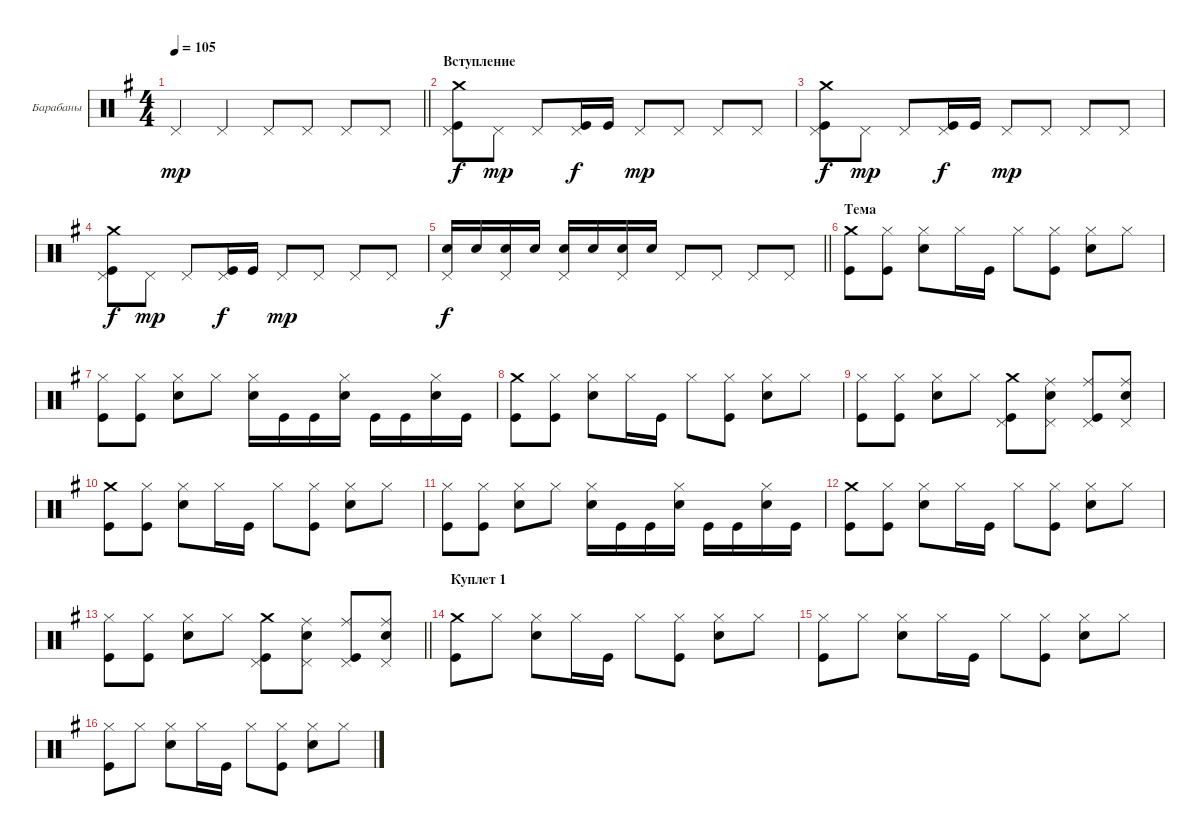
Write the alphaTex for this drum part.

\bracketExtendMode groupsimilarinstruments
\firstSystemTrackNameMode fullname
\otherSystemsTrackNameMode fullname
\firstSystemTrackNameOrientation horizontal
\otherSystemsTrackNameOrientation horizontal
\chordDiagramsInScore
\track ("Барабаны" "Drums") {instrument percussion}
\staff {score}
\articulation defaults
\ts (4 4)
\beaming (8 2 2 2 2)
\tempo 105
\clef neutral
\barLineRight lightlight
\ks eminor "Pedal Hi-Hat (hit)".4{dy mp} "Pedal Hi-Hat (hit)".4 "Pedal Hi-Hat (hit)".8 "Pedal Hi-Hat (hit)".8 "Pedal Hi-Hat (hit)".8 "Pedal Hi-Hat (hit)".8
|
\section ("" "Вступление")
("Pedal Hi-Hat (hit)" "Kick (hit)" "Crash medium (hit)").8{dy f} "Pedal Hi-Hat (hit)".8{dy mp} "Pedal Hi-Hat (hit)".8 ("Kick (hit)" "Pedal Hi-Hat (hit)").16{dy f} "Kick (hit)".16 "Pedal Hi-Hat (hit)".8{dy mp} "Pedal Hi-Hat (hit)".8 "Pedal Hi-Hat (hit)".8 "Pedal Hi-Hat (hit)".8 |
("Kick (hit)" "Crash medium (hit)" "Pedal Hi-Hat (hit)").8{dy f} "Pedal Hi-Hat (hit)".8{dy mp} "Pedal Hi-Hat (hit)".8 ("Kick (hit)" "Pedal Hi-Hat (hit)").16{dy f} "Kick (hit)".16 "Pedal Hi-Hat (hit)".8{dy mp} "Pedal Hi-Hat (hit)".8 "Pedal Hi-Hat (hit)".8 "Pedal Hi-Hat (hit)".8 |
("Pedal Hi-Hat (hit)" "Kick (hit)" "Crash medium (hit)").8{dy f} "Pedal Hi-Hat (hit)".8{dy mp} "Pedal Hi-Hat (hit)".8 ("Kick (hit)" "Pedal Hi-Hat (hit)").16{dy f} "Kick (hit)".16 "Pedal Hi-Hat (hit)".8{dy mp} "Pedal Hi-Hat (hit)".8 "Pedal Hi-Hat (hit)".8 "Pedal Hi-Hat (hit)".8 |
\barLineRight lightlight
("Snare (hit) 2" "Pedal Hi-Hat (hit)").16{dy f} "Snare (hit) 2".16 ("Snare (hit) 2" "Pedal Hi-Hat (hit)").16 "Snare (hit) 2".16 ("Snare (hit) 2" "Pedal Hi-Hat (hit)").16 "Snare (hit) 2".16 ("Pedal Hi-Hat (hit)" "Snare (hit) 2").16 "Snare (hit) 2".16 "Pedal Hi-Hat (hit)".8 "Pedal Hi-Hat (hit)".8 "Pedal Hi-Hat (hit)".8 "Pedal Hi-Hat (hit)".8 |
\section ("" "Тема")
("Kick (hit)" "Crash medium (hit)").8 ("Kick (hit)" "Hi-Hat (closed)").8 ("Hi-Hat (closed)" "Snare (hit) 2").8 "Hi-Hat (closed)".16 "Kick (hit)".16 "Hi-Hat (closed)".8 ("Hi-Hat (closed)" "Kick (hit)").8 ("Hi-Hat (closed)" "Snare (hit) 2").8 "Hi-Hat (closed)".8 |
("Kick (hit)" "Hi-Hat (closed)").8 ("Kick (hit)" "Hi-Hat (closed)").8 ("Hi-Hat (closed)" "Snare (hit) 2").8 "Hi-Hat (closed)".8 ("Snare (hit) 2" "Hi-Hat (closed)").16 "Kick (hit)".16 "Kick (hit)".16 ("Snare (hit) 2" "Hi-Hat (closed)").16 "Kick (hit)".16 "Kick (hit)".16 ("Snare (hit) 2" "Hi-Hat (closed)").16 "Kick (hit)".16 |
("Kick (hit)" "Crash medium (hit)").8 ("Kick (hit)" "Hi-Hat (closed)").8 ("Hi-Hat (closed)" "Snare (hit) 2").8 "Hi-Hat (closed)".16 "Kick (hit)".16 "Hi-Hat (closed)".8 ("Hi-Hat (closed)" "Kick (hit)").8 ("Hi-Hat (closed)" "Snare (hit) 2").8 "Hi-Hat (closed)".8 |
("Kick (hit)" "Hi-Hat (closed)").8 ("Kick (hit)" "Hi-Hat (closed)").8 ("Hi-Hat (closed)" "Snare (hit) 2").8 "Hi-Hat (closed)".8 ("Kick (hit)" "Crash medium (hit)" "Pedal Hi-Hat (hit)").8 ("Snare (hit) 2" "Ride (middle)" "Pedal Hi-Hat (hit)").8 ("Kick (hit)" "Ride (middle)" "Pedal Hi-Hat (hit)").8 ("Snare (hit) 2" "Ride (middle)" "Pedal Hi-Hat (hit)").8 |
("Kick (hit)" "Crash medium (hit)").8 ("Kick (hit)" "Hi-Hat (closed)").8 ("Hi-Hat (closed)" "Snare (hit) 2").8 "Hi-Hat (closed)".16 "Kick (hit)".16 "Hi-Hat (closed)".8 ("Hi-Hat (closed)" "Kick (hit)").8 ("Hi-Hat (closed)" "Snare (hit) 2").8 "Hi-Hat (closed)".8 |
("Kick (hit)" "Hi-Hat (closed)").8 ("Kick (hit)" "Hi-Hat (closed)").8 ("Hi-Hat (closed)" "Snare (hit) 2").8 "Hi-Hat (closed)".8 ("Snare (hit) 2" "Hi-Hat (closed)").16 "Kick (hit)".16 "Kick (hit)".16 ("Snare (hit) 2" "Hi-Hat (closed)").16 "Kick (hit)".16 "Kick (hit)".16 ("Snare (hit) 2" "Hi-Hat (closed)").16 "Kick (hit)".16 |
("Kick (hit)" "Crash medium (hit)").8 ("Kick (hit)" "Hi-Hat (closed)").8 ("Hi-Hat (closed)" "Snare (hit) 2").8 "Hi-Hat (closed)".16 "Kick (hit)".16 "Hi-Hat (closed)".8 ("Hi-Hat (closed)" "Kick (hit)").8 ("Hi-Hat (closed)" "Snare (hit) 2").8 "Hi-Hat (closed)".8 |
\barLineRight lightlight
("Kick (hit)" "Hi-Hat (closed)").8 ("Kick (hit)" "Hi-Hat (closed)").8 ("Hi-Hat (closed)" "Snare (hit) 2").8 "Hi-Hat (closed)".8 ("Kick (hit)" "Crash medium (hit)" "Pedal Hi-Hat (hit)").8 ("Snare (hit) 2" "Ride (middle)" "Pedal Hi-Hat (hit)").8 ("Kick (hit)" "Ride (middle)" "Pedal Hi-Hat (hit)").8 ("Snare (hit) 2" "Ride (middle)" "Pedal Hi-Hat (hit)").8 |
\section ("" "Куплет 1")
("Kick (hit)" "Crash medium (hit)").8 "Hi-Hat (closed)".8 ("Hi-Hat (closed)" "Snare (hit) 2").8 "Hi-Hat (closed)".16 "Kick (hit)".16 "Hi-Hat (closed)".8 ("Hi-Hat (closed)" "Kick (hit)").8 ("Hi-Hat (closed)" "Snare (hit) 2").8 "Hi-Hat (closed)".8 |
("Kick (hit)" "Hi-Hat (closed)").8 "Hi-Hat (closed)".8 ("Hi-Hat (closed)" "Snare (hit) 2").8 "Hi-Hat (closed)".16 "Kick (hit)".16 "Hi-Hat (closed)".8 ("Hi-Hat (closed)" "Kick (hit)").8 ("Hi-Hat (closed)" "Snare (hit) 2").8 "Hi-Hat (closed)".8 |
("Kick (hit)" "Hi-Hat (closed)").8 "Hi-Hat (closed)".8 ("Hi-Hat (closed)" "Snare (hit) 2").8 "Hi-Hat (closed)".16 "Kick (hit)".16 "Hi-Hat (closed)".8 ("Hi-Hat (closed)" "Kick (hit)").8 ("Hi-Hat (closed)" "Snare (hit) 2").8 "Hi-Hat (closed)".8
